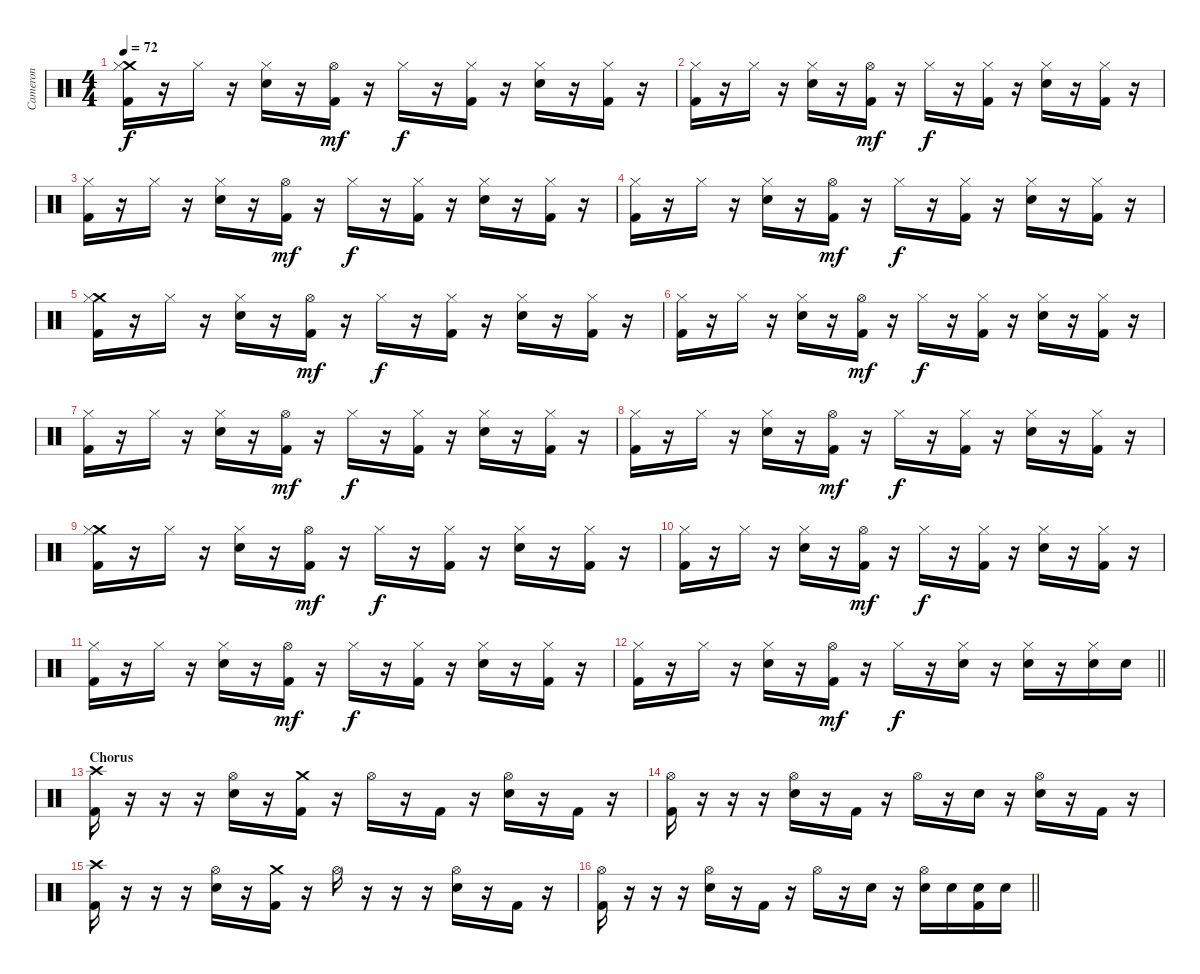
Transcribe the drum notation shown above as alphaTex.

\track ("Cameron" "Cameron") {instrument percussion}
\staff {score}
\articulation defaults
\ts (4 4)
\tempo 72
\clef neutral
\ks c
("Crash medium (hit)" "Hi-Hat (closed)" "Kick (hit) 2").16{dy f} r.16 "Hi-Hat (closed)".16 r.16 ("Hi-Hat (closed)" "Electric Snare (hit)").16 r.16 ("Hi-Hat (open)" "Kick (hit) 2").16{dy mf} r.16 "Hi-Hat (closed)".16{dy f} r.16 ("Hi-Hat (closed)" "Kick (hit) 2").16 r.16 ("Hi-Hat (closed)" "Electric Snare (hit)").16 r.16 ("Hi-Hat (closed)" "Kick (hit) 2").16 r.16 |
("Hi-Hat (closed)" "Kick (hit) 2").16 r.16 "Hi-Hat (closed)".16 r.16 ("Hi-Hat (closed)" "Electric Snare (hit)").16 r.16 ("Hi-Hat (open)" "Kick (hit) 2").16{dy mf} r.16 "Hi-Hat (closed)".16{dy f} r.16 ("Hi-Hat (closed)" "Kick (hit) 2").16 r.16 ("Hi-Hat (closed)" "Electric Snare (hit)").16 r.16 ("Hi-Hat (closed)" "Kick (hit) 2").16 r.16 |
("Hi-Hat (closed)" "Kick (hit) 2").16 r.16 "Hi-Hat (closed)".16 r.16 ("Hi-Hat (closed)" "Electric Snare (hit)").16 r.16 ("Hi-Hat (open)" "Kick (hit) 2").16{dy mf} r.16 "Hi-Hat (closed)".16{dy f} r.16 ("Hi-Hat (closed)" "Kick (hit) 2").16 r.16 ("Hi-Hat (closed)" "Electric Snare (hit)").16 r.16 ("Hi-Hat (closed)" "Kick (hit) 2").16 r.16 |
("Hi-Hat (closed)" "Kick (hit) 2").16 r.16 "Hi-Hat (closed)".16 r.16 ("Hi-Hat (closed)" "Electric Snare (hit)").16 r.16 ("Hi-Hat (open)" "Kick (hit) 2").16{dy mf} r.16 "Hi-Hat (closed)".16{dy f} r.16 ("Hi-Hat (closed)" "Kick (hit) 2").16 r.16 ("Hi-Hat (closed)" "Electric Snare (hit)").16 r.16 ("Hi-Hat (closed)" "Kick (hit) 2").16 r.16 |
("Crash medium (hit)" "Hi-Hat (closed)" "Kick (hit) 2").16 r.16 "Hi-Hat (closed)".16 r.16 ("Hi-Hat (closed)" "Electric Snare (hit)").16 r.16 ("Hi-Hat (open)" "Kick (hit) 2").16{dy mf} r.16 "Hi-Hat (closed)".16{dy f} r.16 ("Hi-Hat (closed)" "Kick (hit) 2").16 r.16 ("Hi-Hat (closed)" "Electric Snare (hit)").16 r.16 ("Hi-Hat (closed)" "Kick (hit) 2").16 r.16 |
("Hi-Hat (closed)" "Kick (hit) 2").16 r.16 "Hi-Hat (closed)".16 r.16 ("Hi-Hat (closed)" "Electric Snare (hit)").16 r.16 ("Hi-Hat (open)" "Kick (hit) 2").16{dy mf} r.16 "Hi-Hat (closed)".16{dy f} r.16 ("Hi-Hat (closed)" "Kick (hit) 2").16 r.16 ("Hi-Hat (closed)" "Electric Snare (hit)").16 r.16 ("Hi-Hat (closed)" "Kick (hit) 2").16 r.16 |
("Hi-Hat (closed)" "Kick (hit) 2").16 r.16 "Hi-Hat (closed)".16 r.16 ("Hi-Hat (closed)" "Electric Snare (hit)").16 r.16 ("Hi-Hat (open)" "Kick (hit) 2").16{dy mf} r.16 "Hi-Hat (closed)".16{dy f} r.16 ("Hi-Hat (closed)" "Kick (hit) 2").16 r.16 ("Hi-Hat (closed)" "Electric Snare (hit)").16 r.16 ("Hi-Hat (closed)" "Kick (hit) 2").16 r.16 |
("Hi-Hat (closed)" "Kick (hit) 2").16 r.16 "Hi-Hat (closed)".16 r.16 ("Hi-Hat (closed)" "Electric Snare (hit)").16 r.16 ("Hi-Hat (open)" "Kick (hit) 2").16{dy mf} r.16 "Hi-Hat (closed)".16{dy f} r.16 ("Hi-Hat (closed)" "Kick (hit) 2").16 r.16 ("Hi-Hat (closed)" "Electric Snare (hit)").16 r.16 ("Hi-Hat (closed)" "Kick (hit) 2").16 r.16 |
("Crash medium (hit)" "Hi-Hat (closed)" "Kick (hit) 2").16 r.16 "Hi-Hat (closed)".16 r.16 ("Hi-Hat (closed)" "Electric Snare (hit)").16 r.16 ("Hi-Hat (open)" "Kick (hit) 2").16{dy mf} r.16 "Hi-Hat (closed)".16{dy f} r.16 ("Hi-Hat (closed)" "Kick (hit) 2").16 r.16 ("Hi-Hat (closed)" "Electric Snare (hit)").16 r.16 ("Hi-Hat (closed)" "Kick (hit) 2").16 r.16 |
("Hi-Hat (closed)" "Kick (hit) 2").16 r.16 "Hi-Hat (closed)".16 r.16 ("Hi-Hat (closed)" "Electric Snare (hit)").16 r.16 ("Hi-Hat (open)" "Kick (hit) 2").16{dy mf} r.16 "Hi-Hat (closed)".16{dy f} r.16 ("Hi-Hat (closed)" "Kick (hit) 2").16 r.16 ("Hi-Hat (closed)" "Electric Snare (hit)").16 r.16 ("Hi-Hat (closed)" "Kick (hit) 2").16 r.16 |
("Hi-Hat (closed)" "Kick (hit) 2").16 r.16 "Hi-Hat (closed)".16 r.16 ("Hi-Hat (closed)" "Electric Snare (hit)").16 r.16 ("Hi-Hat (open)" "Kick (hit) 2").16{dy mf} r.16 "Hi-Hat (closed)".16{dy f} r.16 ("Hi-Hat (closed)" "Kick (hit) 2").16 r.16 ("Hi-Hat (closed)" "Electric Snare (hit)").16 r.16 ("Hi-Hat (closed)" "Kick (hit) 2").16 r.16 |
\barLineRight lightlight
("Hi-Hat (closed)" "Kick (hit) 2").16 r.16 "Hi-Hat (closed)".16 r.16 ("Hi-Hat (closed)" "Electric Snare (hit)").16 r.16 ("Hi-Hat (open)" "Kick (hit) 2").16{dy mf} r.16 "Hi-Hat (closed)".16{dy f} r.16 ("Hi-Hat (closed)" "Electric Snare (hit)").16 r.16 ("Hi-Hat (closed)" "Electric Snare (hit)").16 r.16 ("Hi-Hat (closed)" "Electric Snare (hit)").16 "Electric Snare (hit)".16 |
\section ("" "Chorus")
("Crash high (hit)" "Kick (hit) 2").16 r.16 r.16 r.16 ("Hi-Hat (open)" "Electric Snare (hit)").16 r.16 ("Crash medium (hit)" "Kick (hit) 2").16 r.16 "Hi-Hat (open)".16 r.16 "Kick (hit) 2".16 r.16 ("Hi-Hat (open)" "Electric Snare (hit)").16 r.16 "Kick (hit) 2".16 r.16 |
("Hi-Hat (open)" "Kick (hit) 2").16 r.16 r.16 r.16 ("Hi-Hat (open)" "Electric Snare (hit)").16 r.16 "Kick (hit) 2".16 r.16 "Hi-Hat (open)".16 r.16 "Electric Snare (hit)".16 r.16 ("Hi-Hat (open)" "Electric Snare (hit)").16 r.16 "Kick (hit) 2".16 r.16 |
("Crash high (hit)" "Kick (hit) 2").16 r.16 r.16 r.16 ("Hi-Hat (open)" "Electric Snare (hit)").16 r.16 ("Crash medium (hit)" "Kick (hit) 2").16 r.16 "Hi-Hat (open)".16 r.16 r.16 r.16 ("Hi-Hat (open)" "Electric Snare (hit)").16 r.16 "Kick (hit) 2".16 r.16 |
\barLineRight lightlight
("Hi-Hat (open)" "Kick (hit) 2").16 r.16 r.16 r.16 ("Hi-Hat (open)" "Electric Snare (hit)").16 r.16 "Kick (hit) 2".16 r.16 "Hi-Hat (open)".16 r.16 "Electric Snare (hit)".16 r.16 ("Hi-Hat (open)" "Electric Snare (hit)").16 "Electric Snare (hit)".16 ("Electric Snare (hit)" "Kick (hit) 2").16 "Electric Snare (hit)".16
